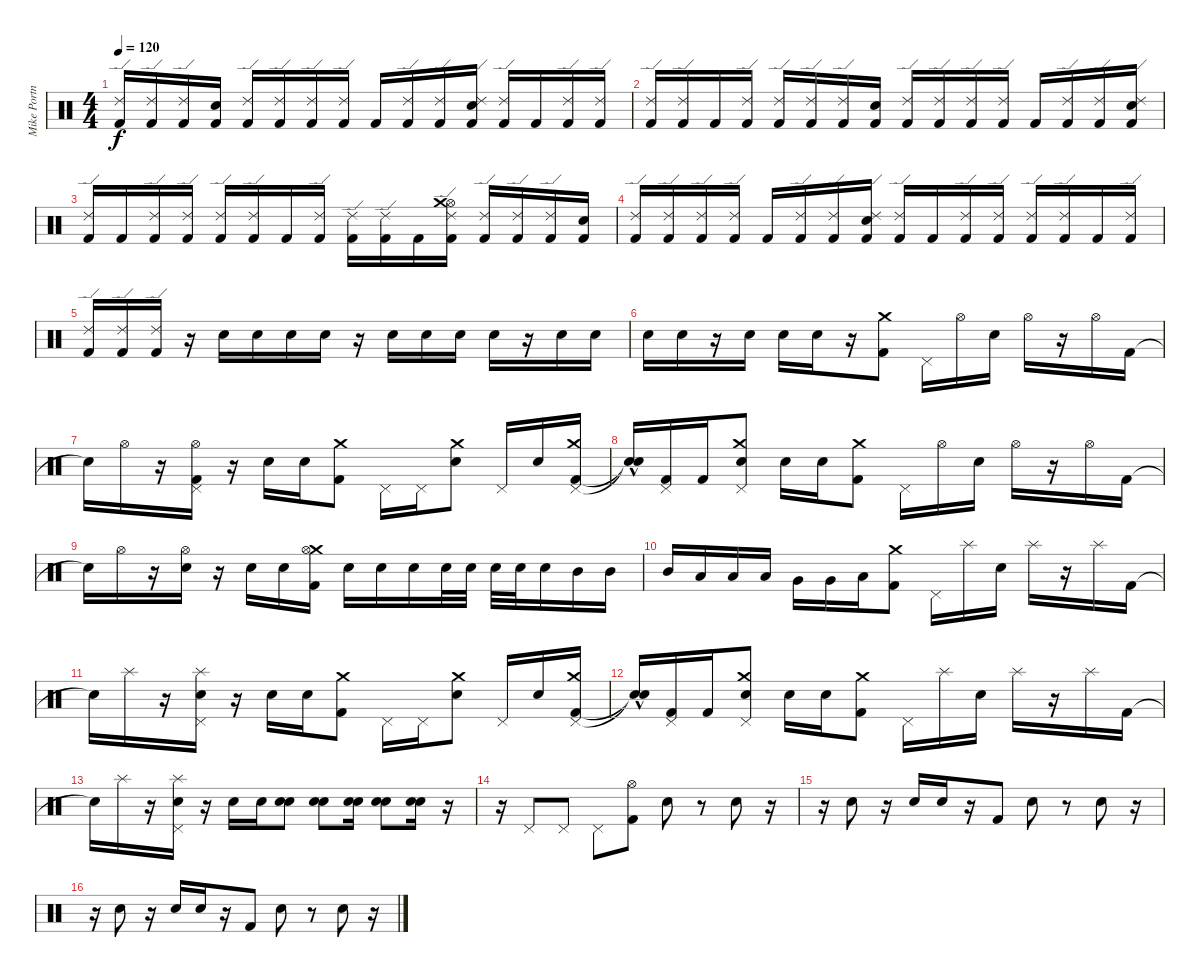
\track ("Mike Portnoy - Batterie" "Mike Portn") {instrument percussion}
\staff {score}
\articulation defaults
\ts (4 4)
\tempo 120
\clef neutral
\ks c
("Ride (edge) 2" "Kick (hit) 2").16{dy f} ("Ride (edge) 2" "Kick (hit) 2").16 ("Ride (edge) 2" "Kick (hit) 2").16 ("Electric Snare (hit)" "Kick (hit) 2").16 ("Ride (edge) 2" "Kick (hit) 2").16 ("Ride (edge) 2" "Kick (hit) 2").16 ("Ride (edge) 2" "Kick (hit) 2").16 ("Ride (edge) 2" "Kick (hit) 2").16 "Kick (hit) 2".16 ("Ride (edge) 2" "Kick (hit) 2").16 ("Ride (edge) 2" "Kick (hit) 2").16 ("Electric Snare (hit)" "Ride (edge) 2" "Kick (hit) 2").16 ("Ride (edge) 2" "Kick (hit) 2").16 "Kick (hit) 2".16 ("Ride (edge) 2" "Kick (hit) 2").16 ("Ride (edge) 2" "Kick (hit) 2").16 |
("Ride (edge) 2" "Kick (hit) 2").16 ("Ride (edge) 2" "Kick (hit) 2").16 "Kick (hit) 2".16 ("Ride (edge) 2" "Kick (hit) 2").16 ("Ride (edge) 2" "Kick (hit) 2").16 ("Ride (edge) 2" "Kick (hit) 2").16 ("Ride (edge) 2" "Kick (hit) 2").16 ("Electric Snare (hit)" "Kick (hit) 2").16 ("Ride (edge) 2" "Kick (hit) 2").16 ("Ride (edge) 2" "Kick (hit) 2").16 ("Ride (edge) 2" "Kick (hit) 2").16 ("Ride (edge) 2" "Kick (hit) 2").16 "Kick (hit) 2".16 ("Ride (edge) 2" "Kick (hit) 2").16 ("Ride (edge) 2" "Kick (hit) 2").16 ("Electric Snare (hit)" "Ride (edge) 2" "Kick (hit) 2").16 |
("Ride (edge) 2" "Kick (hit) 2").16 "Kick (hit) 2".16 ("Ride (edge) 2" "Kick (hit) 2").16 ("Ride (edge) 2" "Kick (hit) 2").16 ("Ride (edge) 2" "Kick (hit) 2").16 ("Ride (edge) 2" "Kick (hit) 2").16 "Kick (hit) 2".16 ("Ride (edge) 2" "Kick (hit) 2").16 ("Ride (edge) 2" "Kick (hit) 2").16 ("Ride (edge) 2" "Kick (hit) 2").16 "Kick (hit) 2".16 ("Hi-Hat (open)" "Crash medium (hit)" "Ride (edge) 2" "Kick (hit) 2").16 ("Ride (edge) 2" "Kick (hit) 2").16 ("Ride (edge) 2" "Kick (hit) 2").16 ("Ride (edge) 2" "Kick (hit) 2").16 ("Electric Snare (hit)" "Kick (hit) 2").16 |
("Ride (edge) 2" "Kick (hit) 2").16 ("Ride (edge) 2" "Kick (hit) 2").16 ("Ride (edge) 2" "Kick (hit) 2").16 ("Ride (edge) 2" "Kick (hit) 2").16 "Kick (hit) 2".16 ("Ride (edge) 2" "Kick (hit) 2").16 ("Ride (edge) 2" "Kick (hit) 2").16 ("Electric Snare (hit)" "Ride (edge) 2" "Kick (hit) 2").16 ("Ride (edge) 2" "Kick (hit) 2").16 "Kick (hit) 2".16 ("Ride (edge) 2" "Kick (hit) 2").16 ("Ride (edge) 2" "Kick (hit) 2").16 ("Ride (edge) 2" "Kick (hit) 2").16 ("Ride (edge) 2" "Kick (hit) 2").16 "Kick (hit) 2".16 ("Ride (edge) 2" "Kick (hit) 2").16 |
("Ride (edge) 2" "Kick (hit) 2").16 ("Ride (edge) 2" "Kick (hit) 2").16 ("Ride (edge) 2" "Kick (hit) 2").16 r.16 "Electric Snare (hit)".16 "Electric Snare (hit)".16 "Electric Snare (hit)".16 "Electric Snare (hit)".16 r.16 "Electric Snare (hit)".16 "Electric Snare (hit)".16 "Electric Snare (hit)".16 "Electric Snare (hit)".16 r.16 "Electric Snare (hit)".16 "Electric Snare (hit)".16 |
"Electric Snare (hit)".16 "Electric Snare (hit)".16 r.16 "Electric Snare (hit)".16 "Electric Snare (hit)".16 "Electric Snare (hit)".16 r.16 ("Crash medium (hit)" "Kick (hit) 2").8 "Pedal Hi-Hat (hit)".16 "Hi-Hat (open)".16 "Electric Snare (hit)".16 "Hi-Hat (open)".16 r.16 "Hi-Hat (open)".16 "Kick (hit) 2".16 |
"Snare (hit)"{t}.16 "Hi-Hat (open)".16 r.16 ("Pedal Hi-Hat (hit)" "Kick (hit) 2" "Hi-Hat (open)").16 r.16 "Electric Snare (hit)".16 "Electric Snare (hit)".16 ("Kick (hit) 2" "Crash medium (hit)").8 "Pedal Hi-Hat (hit)".16 "Pedal Hi-Hat (hit)".16 ("Electric Snare (hit)" "Crash medium (hit)").8 "Pedal Hi-Hat (hit)".16 "Electric Snare (hit)".16 ("Pedal Hi-Hat (hit)" "Kick (hit) 2" "Crash medium (hit)").16 |
("Snare (hit)"{t} "Snare (hit)"{hac t}).16 ("Pedal Hi-Hat (hit)" "Kick (hit) 2").16 "Kick (hit) 2".16 ("Pedal Hi-Hat (hit)" "Electric Snare (hit)" "Crash medium (hit)").8 "Electric Snare (hit)".16 "Electric Snare (hit)".16 ("Crash medium (hit)" "Kick (hit) 2").8 "Pedal Hi-Hat (hit)".16 "Hi-Hat (open)".16 "Electric Snare (hit)".16 "Hi-Hat (open)".16 r.16 "Hi-Hat (open)".16 "Kick (hit) 2".16 |
"Snare (hit)"{t}.16 "Hi-Hat (open)".16 r.16 ("Electric Snare (hit)" "Hi-Hat (open)").16 r.16 "Electric Snare (hit)".16 "Electric Snare (hit)".16 ("Crash medium (hit)" "Hi-Hat (open)" "Kick (hit) 2").16 "Electric Snare (hit)".16 "Electric Snare (hit)".16 "Electric Snare (hit)".16 "Electric Snare (hit)".32 "Electric Snare (hit)".32 "Electric Snare (hit)".32 "Electric Snare (hit)".32 "Electric Snare (hit)".16 "Mid Tom (hit)".16 "Mid Tom (hit)".16 |
"Mid Tom (hit)".16 "Low Tom (hit)".16 "Low Tom (hit)".16 "Low Tom (hit)".16 "Very Low Tom (hit)".16 "Very Low Tom (hit)".16 "Low Floor Tom (hit)".16 ("Crash medium (hit)" "Kick (hit) 2").8 "Pedal Hi-Hat (hit)".16 "Splash (hit)".16 "Electric Snare (hit)".16 "Splash (hit)".16 r.16 "Splash (hit)".16 "Kick (hit) 2".16 |
"Snare (hit)"{t}.16 "Splash (hit)".16 r.16 ("Electric Snare (hit)" "Splash (hit)" "Pedal Hi-Hat (hit)").16 r.16 "Electric Snare (hit)".16 "Electric Snare (hit)".16 ("Kick (hit) 2" "Crash medium (hit)").8 "Pedal Hi-Hat (hit)".16 "Pedal Hi-Hat (hit)".16 ("Electric Snare (hit)" "Crash medium (hit)").8 "Pedal Hi-Hat (hit)".16 "Electric Snare (hit)".16 ("Pedal Hi-Hat (hit)" "Kick (hit) 2" "Crash medium (hit)").16 |
("Snare (hit)"{t} "Snare (hit)"{hac t}).16 ("Pedal Hi-Hat (hit)" "Kick (hit) 2").16 "Kick (hit) 2".16 ("Pedal Hi-Hat (hit)" "Electric Snare (hit)" "Crash medium (hit)").8 "Electric Snare (hit)".16 "Electric Snare (hit)".16 ("Crash medium (hit)" "Kick (hit) 2").8 "Pedal Hi-Hat (hit)".16 "Splash (hit)".16 "Electric Snare (hit)".16 "Splash (hit)".16 r.16 "Splash (hit)".16 "Kick (hit) 2".16 |
"Snare (hit)"{t}.16 "Splash (hit)".16 r.16 ("Electric Snare (hit)" "Splash (hit)" "Pedal Hi-Hat (hit)").16 r.16 "Electric Snare (hit)".16 "Electric Snare (hit)".16 ("Snare (hit) 2" "Electric Snare (hit)").8 ("Snare (hit) 2" "Electric Snare (hit)").8 ("Snare (hit) 2" "Electric Snare (hit)").16 ("Snare (hit) 2" "Electric Snare (hit)").8 ("Snare (hit) 2" "Electric Snare (hit)").16 r.16 |
r.16 "Pedal Hi-Hat (hit)".8 "Pedal Hi-Hat (hit)".8 "Pedal Hi-Hat (hit)".8 ("Kick (hit) 2" "Hi-Hat (open)").8 "Snare (hit) 2".8 r.8 "Snare (hit) 2".8 r.16 |
r.16 "Snare (hit) 2".8 r.16 "Snare (hit) 2".16 "Snare (hit) 2".16 r.16 "Kick (hit) 2".8 "Snare (hit) 2".8 r.8 "Snare (hit) 2".8 r.16 |
r.16 "Snare (hit) 2".8 r.16 "Snare (hit) 2".16 "Snare (hit) 2".16 r.16 "Kick (hit) 2".8 "Snare (hit) 2".8 r.8 "Snare (hit) 2".8 r.16
